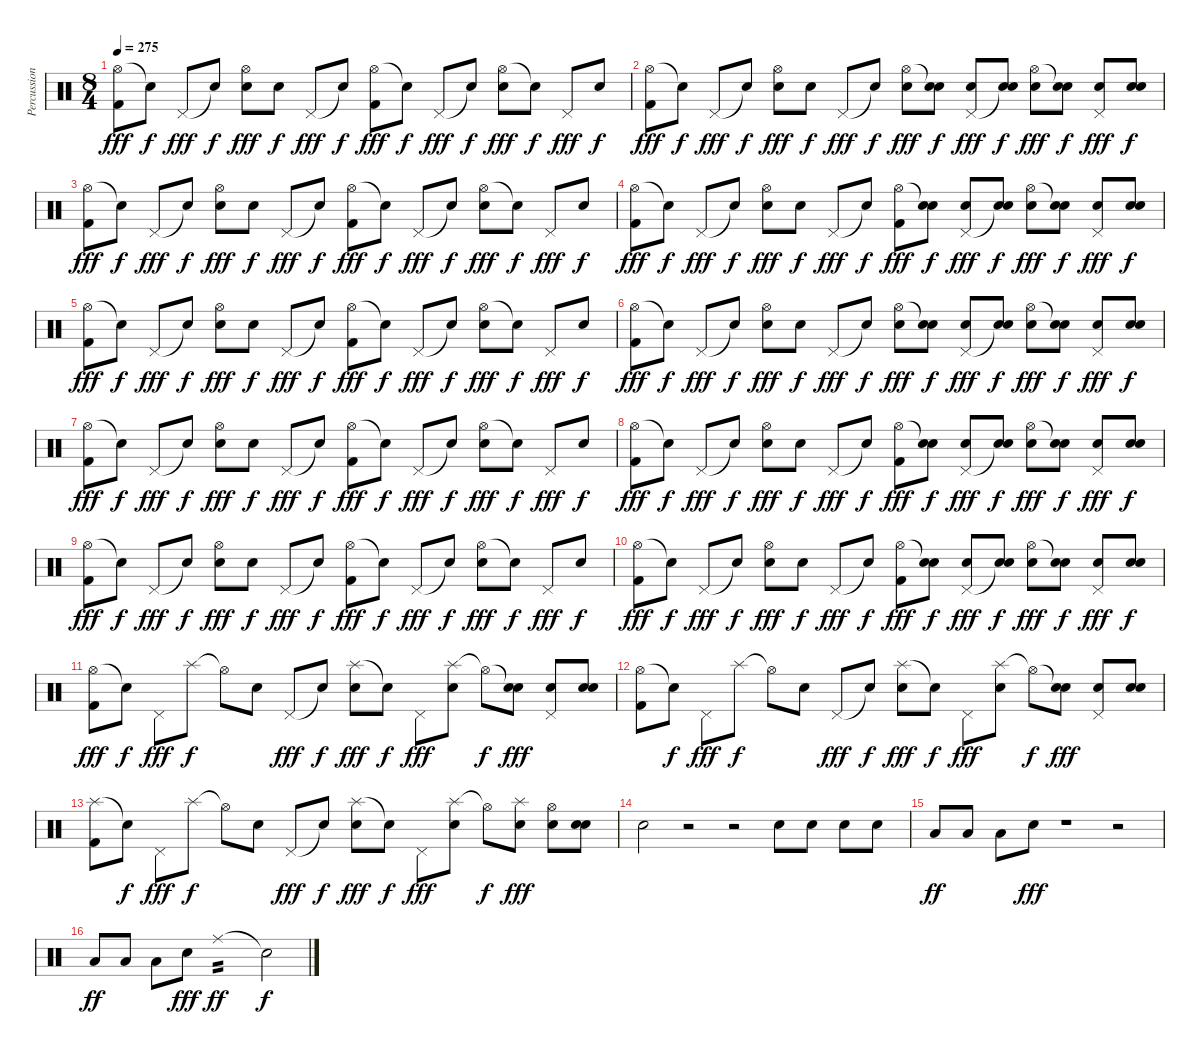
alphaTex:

\track ("Percussion" "Percussion") {instrument percussion}
\staff {score}
\articulation defaults
\ts (8 4)
\tempo 275
\clef neutral
\ks c
("Hi-Hat (open)" "Kick (hit) 2").8{dy fff} "Snare (hit)"{t}.8{dy f} "Pedal Hi-Hat (hit)".8{dy fff} "Snare (hit)"{t}.8{dy f} ("Hi-Hat (open)" "Electric Snare (hit)").8{dy fff} "Snare (hit)".8{dy f} "Pedal Hi-Hat (hit)".8{dy fff} "Snare (hit)"{t}.8{dy f} ("Hi-Hat (open)" "Kick (hit) 2").8{dy fff} "Snare (hit)"{t}.8{dy f} "Pedal Hi-Hat (hit)".8{dy fff} "Snare (hit)"{t}.8{dy f} ("Hi-Hat (open)" "Electric Snare (hit)").8{dy fff} "Snare (hit)"{t}.8{dy f} "Pedal Hi-Hat (hit)".8{dy fff} "Snare (hit)".8{dy f} |
("Hi-Hat (open)" "Kick (hit) 2").8{dy fff} "Snare (hit)"{t}.8{dy f} "Pedal Hi-Hat (hit)".8{dy fff} "Snare (hit)"{t}.8{dy f} ("Hi-Hat (open)" "Electric Snare (hit)").8{dy fff} "Snare (hit)".8{dy f} "Pedal Hi-Hat (hit)".8{dy fff} "Snare (hit)"{t}.8{dy f} ("Hi-Hat (open)" "Electric Snare (hit)").8{dy fff} ("Snare (hit)"{t} "Electric Snare (hit)").8{dy f} ("Pedal Hi-Hat (hit)" "Electric Snare (hit)").8{dy fff} ("Snare (hit)"{t} "Electric Snare (hit)").8{dy f} ("Hi-Hat (open)" "Electric Snare (hit)").8{dy fff} ("Snare (hit)"{t} "Electric Snare (hit)").8{dy f} ("Pedal Hi-Hat (hit)" "Electric Snare (hit)").8{dy fff} ("Snare (hit)" "Electric Snare (hit)").8{dy f} |
("Hi-Hat (open)" "Kick (hit) 2").8{dy fff} "Snare (hit)"{t}.8{dy f} "Pedal Hi-Hat (hit)".8{dy fff} "Snare (hit)"{t}.8{dy f} ("Hi-Hat (open)" "Electric Snare (hit)").8{dy fff} "Snare (hit)".8{dy f} "Pedal Hi-Hat (hit)".8{dy fff} "Snare (hit)"{t}.8{dy f} ("Hi-Hat (open)" "Kick (hit) 2").8{dy fff} "Snare (hit)"{t}.8{dy f} "Pedal Hi-Hat (hit)".8{dy fff} "Snare (hit)"{t}.8{dy f} ("Hi-Hat (open)" "Electric Snare (hit)").8{dy fff} "Snare (hit)"{t}.8{dy f} "Pedal Hi-Hat (hit)".8{dy fff} "Snare (hit)".8{dy f} |
("Hi-Hat (open)" "Kick (hit) 2").8{dy fff} "Snare (hit)"{t}.8{dy f} "Pedal Hi-Hat (hit)".8{dy fff} "Snare (hit)"{t}.8{dy f} ("Hi-Hat (open)" "Electric Snare (hit)").8{dy fff} "Snare (hit)".8{dy f} "Pedal Hi-Hat (hit)".8{dy fff} "Snare (hit)"{t}.8{dy f} ("Hi-Hat (open)" "Kick (hit) 2").8{dy fff} ("Snare (hit)"{t} "Electric Snare (hit)").8{dy f} ("Pedal Hi-Hat (hit)" "Electric Snare (hit)").8{dy fff} ("Snare (hit)"{t} "Electric Snare (hit)").8{dy f} ("Hi-Hat (open)" "Electric Snare (hit)").8{dy fff} ("Snare (hit)"{t} "Electric Snare (hit)").8{dy f} ("Pedal Hi-Hat (hit)" "Electric Snare (hit)").8{dy fff} ("Snare (hit)" "Electric Snare (hit)").8{dy f} |
("Hi-Hat (open)" "Kick (hit) 2").8{dy fff} "Snare (hit)"{t}.8{dy f} "Pedal Hi-Hat (hit)".8{dy fff} "Snare (hit)"{t}.8{dy f} ("Hi-Hat (open)" "Electric Snare (hit)").8{dy fff} "Snare (hit)".8{dy f} "Pedal Hi-Hat (hit)".8{dy fff} "Snare (hit)"{t}.8{dy f} ("Hi-Hat (open)" "Kick (hit) 2").8{dy fff} "Snare (hit)"{t}.8{dy f} "Pedal Hi-Hat (hit)".8{dy fff} "Snare (hit)"{t}.8{dy f} ("Hi-Hat (open)" "Electric Snare (hit)").8{dy fff} "Snare (hit)"{t}.8{dy f} "Pedal Hi-Hat (hit)".8{dy fff} "Snare (hit)".8{dy f} |
("Hi-Hat (open)" "Kick (hit) 2").8{dy fff} "Snare (hit)"{t}.8{dy f} "Pedal Hi-Hat (hit)".8{dy fff} "Snare (hit)"{t}.8{dy f} ("Hi-Hat (open)" "Electric Snare (hit)").8{dy fff} "Snare (hit)".8{dy f} "Pedal Hi-Hat (hit)".8{dy fff} "Snare (hit)"{t}.8{dy f} ("Hi-Hat (open)" "Electric Snare (hit)").8{dy fff} ("Snare (hit)"{t} "Electric Snare (hit)").8{dy f} ("Pedal Hi-Hat (hit)" "Electric Snare (hit)").8{dy fff} ("Snare (hit)"{t} "Electric Snare (hit)").8{dy f} ("Hi-Hat (open)" "Electric Snare (hit)").8{dy fff} ("Snare (hit)"{t} "Electric Snare (hit)").8{dy f} ("Pedal Hi-Hat (hit)" "Electric Snare (hit)").8{dy fff} ("Snare (hit)" "Electric Snare (hit)").8{dy f} |
("Hi-Hat (open)" "Kick (hit) 2").8{dy fff} "Snare (hit)"{t}.8{dy f} "Pedal Hi-Hat (hit)".8{dy fff} "Snare (hit)"{t}.8{dy f} ("Hi-Hat (open)" "Electric Snare (hit)").8{dy fff} "Snare (hit)".8{dy f} "Pedal Hi-Hat (hit)".8{dy fff} "Snare (hit)"{t}.8{dy f} ("Hi-Hat (open)" "Kick (hit) 2").8{dy fff} "Snare (hit)"{t}.8{dy f} "Pedal Hi-Hat (hit)".8{dy fff} "Snare (hit)"{t}.8{dy f} ("Hi-Hat (open)" "Electric Snare (hit)").8{dy fff} "Snare (hit)"{t}.8{dy f} "Pedal Hi-Hat (hit)".8{dy fff} "Snare (hit)".8{dy f} |
("Hi-Hat (open)" "Kick (hit) 2").8{dy fff} "Snare (hit)"{t}.8{dy f} "Pedal Hi-Hat (hit)".8{dy fff} "Snare (hit)"{t}.8{dy f} ("Hi-Hat (open)" "Electric Snare (hit)").8{dy fff} "Snare (hit)".8{dy f} "Pedal Hi-Hat (hit)".8{dy fff} "Snare (hit)"{t}.8{dy f} ("Hi-Hat (open)" "Kick (hit) 2").8{dy fff} ("Snare (hit)"{t} "Electric Snare (hit)").8{dy f} ("Pedal Hi-Hat (hit)" "Electric Snare (hit)").8{dy fff} ("Snare (hit)"{t} "Electric Snare (hit)").8{dy f} ("Hi-Hat (open)" "Electric Snare (hit)").8{dy fff} ("Snare (hit)"{t} "Electric Snare (hit)").8{dy f} ("Pedal Hi-Hat (hit)" "Electric Snare (hit)").8{dy fff} ("Snare (hit)" "Electric Snare (hit)").8{dy f} |
("Hi-Hat (open)" "Kick (hit) 2").8{dy fff} "Snare (hit)"{t}.8{dy f} "Pedal Hi-Hat (hit)".8{dy fff} "Snare (hit)"{t}.8{dy f} ("Hi-Hat (open)" "Electric Snare (hit)").8{dy fff} "Snare (hit)".8{dy f} "Pedal Hi-Hat (hit)".8{dy fff} "Snare (hit)"{t}.8{dy f} ("Hi-Hat (open)" "Kick (hit) 2").8{dy fff} "Snare (hit)"{t}.8{dy f} "Pedal Hi-Hat (hit)".8{dy fff} "Snare (hit)"{t}.8{dy f} ("Hi-Hat (open)" "Electric Snare (hit)").8{dy fff} "Snare (hit)"{t}.8{dy f} "Pedal Hi-Hat (hit)".8{dy fff} "Snare (hit)".8{dy f} |
("Hi-Hat (open)" "Kick (hit) 2").8{dy fff} "Snare (hit)"{t}.8{dy f} "Pedal Hi-Hat (hit)".8{dy fff} "Snare (hit)"{t}.8{dy f} ("Hi-Hat (open)" "Electric Snare (hit)").8{dy fff} "Snare (hit)".8{dy f} "Pedal Hi-Hat (hit)".8{dy fff} "Snare (hit)"{t}.8{dy f} ("Hi-Hat (open)" "Kick (hit) 2").8{dy fff} ("Snare (hit)"{t} "Electric Snare (hit)").8{dy f} ("Pedal Hi-Hat (hit)" "Electric Snare (hit)").8{dy fff} ("Snare (hit)"{t} "Electric Snare (hit)").8{dy f} ("Hi-Hat (open)" "Electric Snare (hit)").8{dy fff} ("Snare (hit)"{t} "Electric Snare (hit)").8{dy f} ("Pedal Hi-Hat (hit)" "Electric Snare (hit)").8{dy fff} ("Snare (hit)" "Electric Snare (hit)").8{dy f} |
("Hi-Hat (open)" "Kick (hit) 2").8{dy fff} "Snare (hit)"{t}.8{dy f} "Pedal Hi-Hat (hit)".8{dy fff} "Splash (hit)".8{dy f} "Hi-Hat (open)"{t}.8 "Snare (hit)".8 "Pedal Hi-Hat (hit)".8{dy fff} "Snare (hit)"{t}.8{dy f} ("Splash (hit)" "Electric Snare (hit)").8{dy fff} "Snare (hit)"{t}.8{dy f} "Pedal Hi-Hat (hit)".8{dy fff} ("Splash (hit)" "Electric Snare (hit)").8 "Hi-Hat (open)"{t}.8{dy f} ("Snare (hit)"{t} "Electric Snare (hit)").8{dy fff} ("Pedal Hi-Hat (hit)" "Electric Snare (hit)").8 ("Snare (hit)" "Electric Snare (hit)").8 |
("Hi-Hat (open)" "Kick (hit) 2").8 "Snare (hit)"{t}.8{dy f} "Pedal Hi-Hat (hit)".8{dy fff} "Splash (hit)".8{dy f} "Hi-Hat (open)"{t}.8 "Snare (hit)".8 "Pedal Hi-Hat (hit)".8{dy fff} "Snare (hit)"{t}.8{dy f} ("Splash (hit)" "Electric Snare (hit)").8{dy fff} "Snare (hit)"{t}.8{dy f} "Pedal Hi-Hat (hit)".8{dy fff} ("Splash (hit)" "Electric Snare (hit)").8 "Hi-Hat (open)"{t}.8{dy f} ("Snare (hit)"{t} "Electric Snare (hit)").8{dy fff} ("Pedal Hi-Hat (hit)" "Electric Snare (hit)").8 ("Snare (hit)" "Electric Snare (hit)").8 |
("Splash (hit)" "Kick (hit) 2").8 "Snare (hit)"{t}.8{dy f} "Pedal Hi-Hat (hit)".8{dy fff} "Splash (hit)".8{dy f} "Hi-Hat (open)"{t}.8 "Snare (hit)".8 "Pedal Hi-Hat (hit)".8{dy fff} "Snare (hit)"{t}.8{dy f} ("Splash (hit)" "Electric Snare (hit)").8{dy fff} "Snare (hit)"{t}.8{dy f} "Pedal Hi-Hat (hit)".8{dy fff} ("Splash (hit)" "Electric Snare (hit)").8 "Hi-Hat (open)"{t}.8{dy f} ("Splash (hit)" "Electric Snare (hit)").8{dy fff} ("Hi-Hat (open)" "Electric Snare (hit)").8 ("Snare (hit)" "Electric Snare (hit)").8 |
"Electric Snare (hit)".2 r.2 r.2 "Electric Snare (hit)".8 "Electric Snare (hit)".8 "Electric Snare (hit)".8 "Electric Snare (hit)".8 |
"Low Floor Tom (hit)".8{dy ff} "Low Floor Tom (hit)".8 "Low Floor Tom (hit)".8 "Electric Snare (hit)".8{dy fff} r.1 r.2 |
"Low Floor Tom (hit)".8{dy ff} "Low Floor Tom (hit)".8 "Low Floor Tom (hit)".8 "Electric Snare (hit)".8{dy fff} "Ride (middle)".1{tp 2 dy ff} "Snare (hit)"{t}.2{dy f}
